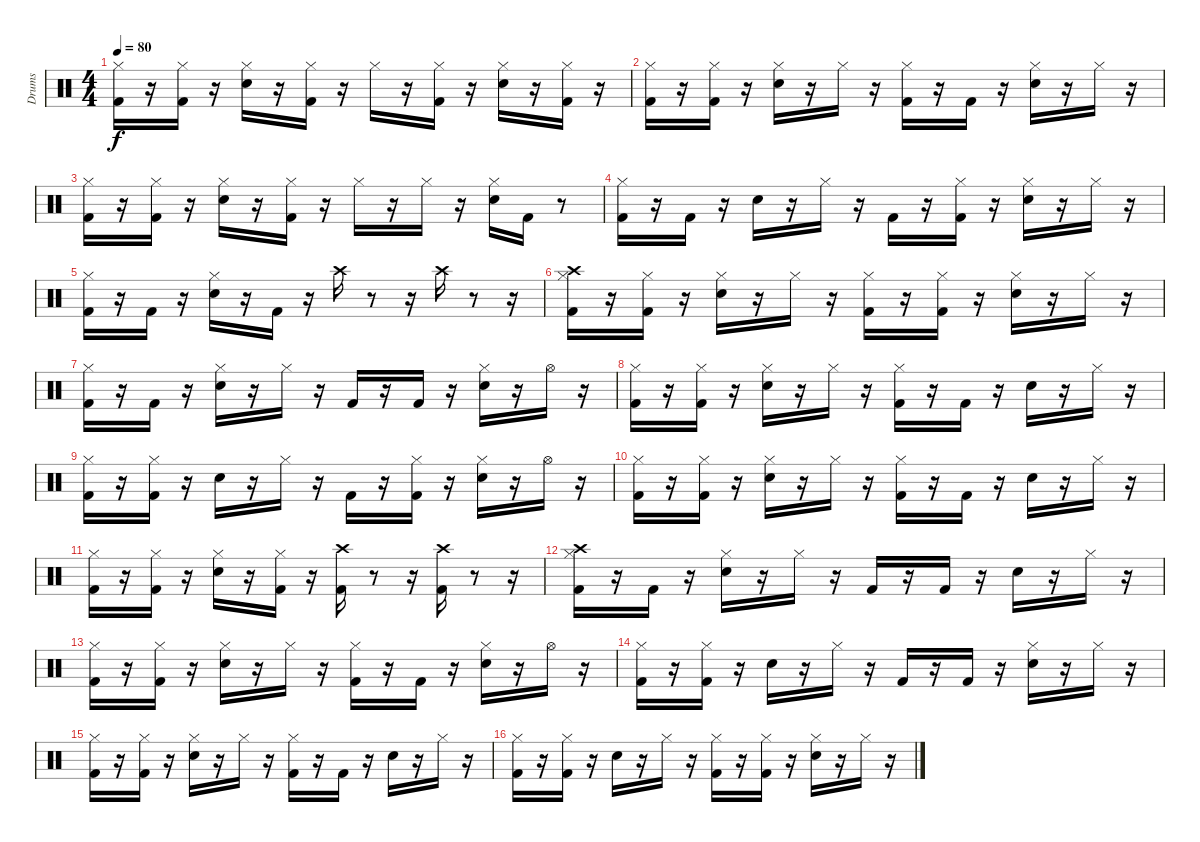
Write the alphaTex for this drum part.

\track ("Drums" "Drums") {instrument percussion}
\staff {score}
\articulation defaults
\ts (4 4)
\tempo 80
\clef neutral
\ks c
("Kick (hit) 2" "Hi-Hat (closed)").16{dy f} r.16 ("Kick (hit) 2" "Hi-Hat (closed)").16 r.16 ("Snare (hit) 2" "Hi-Hat (closed)").16 r.16 ("Kick (hit) 2" "Hi-Hat (closed)").16 r.16 "Hi-Hat (closed)".16 r.16 ("Kick (hit) 2" "Hi-Hat (closed)").16 r.16 ("Snare (hit) 2" "Hi-Hat (closed)").16 r.16 ("Kick (hit) 2" "Hi-Hat (closed)").16 r.16 |
("Kick (hit) 2" "Hi-Hat (closed)").16 r.16 ("Kick (hit) 2" "Hi-Hat (closed)").16 r.16 ("Snare (hit) 2" "Hi-Hat (closed)").16 r.16 "Hi-Hat (closed)".16 r.16 ("Kick (hit) 2" "Hi-Hat (closed)").16 r.16 "Kick (hit) 2".16 r.16 ("Snare (hit) 2" "Hi-Hat (closed)").16 r.16 "Hi-Hat (closed)".16 r.16 |
("Kick (hit) 2" "Hi-Hat (closed)").16 r.16 ("Kick (hit) 2" "Hi-Hat (closed)").16 r.16 ("Snare (hit) 2" "Hi-Hat (closed)").16 r.16 ("Kick (hit) 2" "Hi-Hat (closed)").16 r.16 "Hi-Hat (closed)".16 r.16 "Hi-Hat (closed)".16 r.16 ("Snare (hit) 2" "Hi-Hat (closed)").16 "Kick (hit) 2".16 r.8 |
("Kick (hit) 2" "Hi-Hat (closed)").16 r.16 "Kick (hit) 2".16 r.16 "Snare (hit) 2".16 r.16 "Hi-Hat (closed)".16 r.16 "Kick (hit) 2".16 r.16 ("Kick (hit) 2" "Hi-Hat (closed)").16 r.16 ("Snare (hit) 2" "Hi-Hat (closed)").16 r.16 "Hi-Hat (closed)".16 r.16 |
("Kick (hit) 2" "Hi-Hat (closed)").16 r.16 "Kick (hit) 2".16 r.16 ("Snare (hit) 2" "Hi-Hat (closed)").16 r.16 "Kick (hit) 2".16 r.16 "Crash high (hit)".16 r.8 r.16 "Crash high (hit)".16 r.8 r.16 |
("Kick (hit) 2" "Hi-Hat (closed)" "Crash high (hit)").16 r.16 ("Kick (hit) 2" "Hi-Hat (closed)").16 r.16 ("Snare (hit) 2" "Hi-Hat (closed)").16 r.16 "Hi-Hat (closed)".16 r.16 ("Kick (hit) 2" "Hi-Hat (closed)").16 r.16 ("Kick (hit) 2" "Hi-Hat (closed)").16 r.16 ("Snare (hit) 2" "Hi-Hat (closed)").16 r.16 "Hi-Hat (closed)".16 r.16 |
("Kick (hit) 2" "Hi-Hat (closed)").16 r.16 "Kick (hit) 2".16 r.16 ("Snare (hit) 2" "Hi-Hat (closed)").16 r.16 "Hi-Hat (closed)".16 r.16 "Kick (hit) 2".16 r.16 "Kick (hit) 2".16 r.16 ("Snare (hit) 2" "Hi-Hat (closed)").16 r.16 "Hi-Hat (open)".16 r.16 |
("Kick (hit) 2" "Hi-Hat (closed)").16 r.16 ("Kick (hit) 2" "Hi-Hat (closed)").16 r.16 ("Snare (hit) 2" "Hi-Hat (closed)").16 r.16 "Hi-Hat (closed)".16 r.16 ("Kick (hit) 2" "Hi-Hat (closed)").16 r.16 "Kick (hit) 2".16 r.16 "Snare (hit) 2".16 r.16 "Hi-Hat (closed)".16 r.16 |
("Kick (hit) 2" "Hi-Hat (closed)").16 r.16 ("Kick (hit) 2" "Hi-Hat (closed)").16 r.16 "Snare (hit) 2".16 r.16 "Hi-Hat (closed)".16 r.16 "Kick (hit) 2".16 r.16 ("Kick (hit) 2" "Hi-Hat (closed)").16 r.16 ("Snare (hit) 2" "Hi-Hat (closed)").16 r.16 "Hi-Hat (open)".16 r.16 |
("Kick (hit) 2" "Hi-Hat (closed)").16 r.16 ("Kick (hit) 2" "Hi-Hat (closed)").16 r.16 ("Snare (hit) 2" "Hi-Hat (closed)").16 r.16 "Hi-Hat (closed)".16 r.16 ("Kick (hit) 2" "Hi-Hat (closed)").16 r.16 "Kick (hit) 2".16 r.16 "Snare (hit) 2".16 r.16 "Hi-Hat (closed)".16 r.16 |
("Kick (hit) 2" "Hi-Hat (closed)").16 r.16 ("Kick (hit) 2" "Hi-Hat (closed)").16 r.16 ("Snare (hit) 2" "Hi-Hat (closed)").16 r.16 ("Kick (hit) 2" "Hi-Hat (closed)").16 r.16 ("Kick (hit) 2" "Crash high (hit)").16 r.8 r.16 ("Kick (hit) 2" "Crash high (hit)").16 r.8 r.16 |
("Kick (hit) 2" "Hi-Hat (closed)" "Crash high (hit)").16 r.16 "Kick (hit) 2".16 r.16 ("Snare (hit) 2" "Hi-Hat (closed)").16 r.16 "Hi-Hat (closed)".16 r.16 "Kick (hit) 2".16 r.16 "Kick (hit) 2".16 r.16 "Snare (hit) 2".16 r.16 "Hi-Hat (closed)".16 r.16 |
("Kick (hit) 2" "Hi-Hat (closed)").16 r.16 ("Kick (hit) 2" "Hi-Hat (closed)").16 r.16 ("Snare (hit) 2" "Hi-Hat (closed)").16 r.16 "Hi-Hat (closed)".16 r.16 ("Kick (hit) 2" "Hi-Hat (closed)").16 r.16 "Kick (hit) 2".16 r.16 ("Snare (hit) 2" "Hi-Hat (closed)").16 r.16 "Hi-Hat (open)".16 r.16 |
("Kick (hit) 2" "Hi-Hat (closed)").16 r.16 ("Kick (hit) 2" "Hi-Hat (closed)").16 r.16 "Snare (hit) 2".16 r.16 "Hi-Hat (closed)".16 r.16 "Kick (hit) 2".16 r.16 "Kick (hit) 2".16 r.16 ("Snare (hit) 2" "Hi-Hat (closed)").16 r.16 "Hi-Hat (closed)".16 r.16 |
("Kick (hit) 2" "Hi-Hat (closed)").16 r.16 ("Kick (hit) 2" "Hi-Hat (closed)").16 r.16 ("Snare (hit) 2" "Hi-Hat (closed)").16 r.16 "Hi-Hat (closed)".16 r.16 ("Kick (hit) 2" "Hi-Hat (closed)").16 r.16 "Kick (hit) 2".16 r.16 "Snare (hit) 2".16 r.16 "Hi-Hat (closed)".16 r.16 |
("Kick (hit) 2" "Hi-Hat (closed)").16 r.16 ("Kick (hit) 2" "Hi-Hat (closed)").16 r.16 "Snare (hit) 2".16 r.16 "Hi-Hat (closed)".16 r.16 ("Kick (hit) 2" "Hi-Hat (closed)").16 r.16 ("Kick (hit) 2" "Hi-Hat (closed)").16 r.16 ("Snare (hit) 2" "Hi-Hat (closed)").16 r.16 "Hi-Hat (closed)".16 r.16
